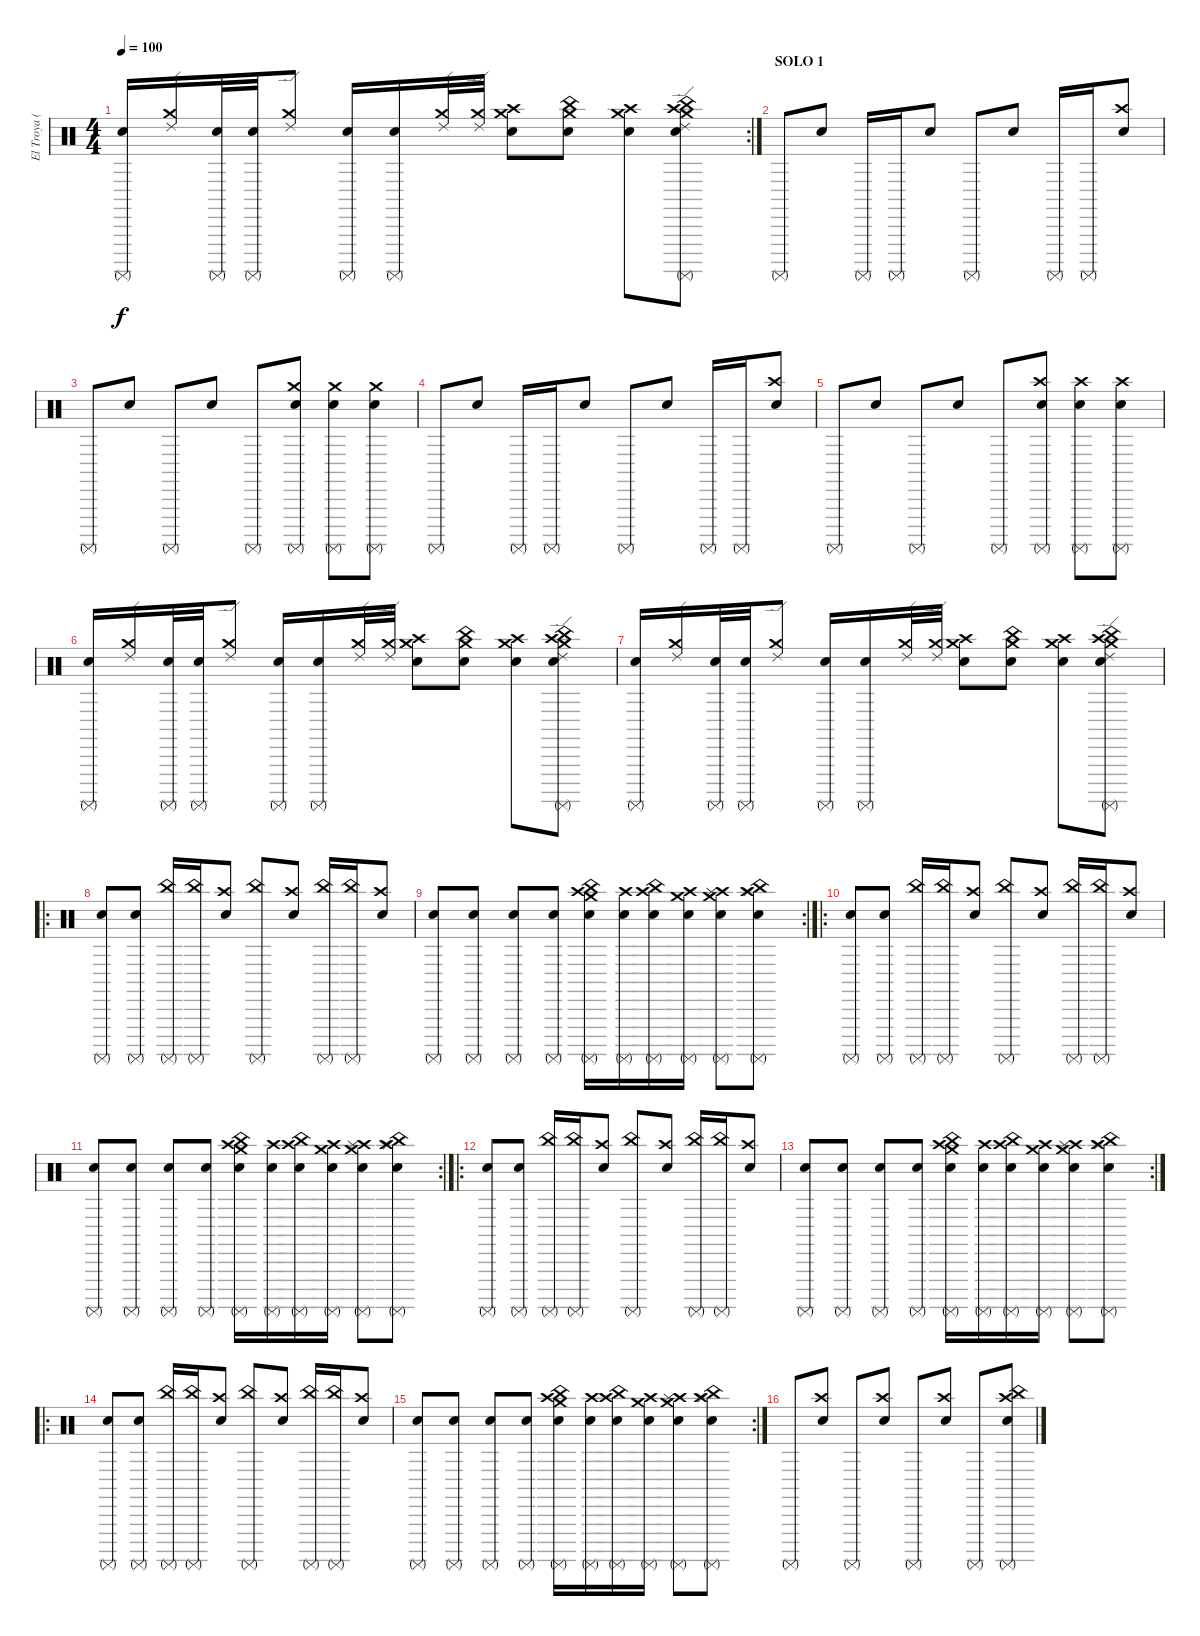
\track ("El Troya (Premio)" "El Troya (") {instrument percussion}
\staff {score}
\articulation defaults
\rc 2
\ts (4 4)
\tempo 100
\clef neutral
\ks c
("Electric Snare (hit)" "Surdo (mute)").16{dy f} ("Ride (edge) 2" "Crash medium (hit)").16 ("Electric Snare (hit)" "Surdo (mute)").32 ("Electric Snare (hit)" "Surdo (mute)").32 ("Ride (edge) 2" "Crash medium (hit)").8 ("Electric Snare (hit)" "Surdo (mute)").16 ("Electric Snare (hit)" "Surdo (mute)").16 ("Crash medium (hit)" "Ride (edge) 2").32 ("Crash medium (hit)" "Ride (edge) 2").32 ("Crash high (hit)" "Crash medium (hit)" "Electric Snare (hit)").8 ("China (hit)" "Crash medium (hit)" "Electric Snare (hit)").8 ("Crash high (hit)" "Crash medium (hit)" "Electric Snare (hit)").8 ("Crash high (hit)" "China (hit)" "Ride (edge) 2" "Crash medium (hit)" "Surdo (mute)" "Electric Snare (hit)").8 |
\section ("" "SOLO 1")
"Surdo (mute)".8 "Electric Snare (hit)".8 "Surdo (mute)".16 "Surdo (mute)".16 "Electric Snare (hit)".8 "Surdo (mute)".8 "Electric Snare (hit)".8 "Surdo (mute)".16 "Surdo (mute)".16 ("Crash high (hit)" "Electric Snare (hit)").8 |
"Surdo (mute)".8 "Electric Snare (hit)".8 "Surdo (mute)".8 "Electric Snare (hit)".8 "Surdo (mute)".8 ("Surdo (mute)" "Crash medium (hit)" "Electric Snare (hit)").8 ("Surdo (mute)" "Crash medium (hit)" "Electric Snare (hit)").8 ("Surdo (mute)" "Crash medium (hit)" "Electric Snare (hit)").8 |
"Surdo (mute)".8 "Electric Snare (hit)".8 "Surdo (mute)".16 "Surdo (mute)".16 "Electric Snare (hit)".8 "Surdo (mute)".8 "Electric Snare (hit)".8 "Surdo (mute)".16 "Surdo (mute)".16 ("Crash high (hit)" "Electric Snare (hit)").8 |
"Surdo (mute)".8 "Electric Snare (hit)".8 "Surdo (mute)".8 "Electric Snare (hit)".8 "Surdo (mute)".8 ("Crash high (hit)" "Surdo (mute)" "Electric Snare (hit)").8 ("Crash high (hit)" "Electric Snare (hit)" "Surdo (mute)").8 ("Crash high (hit)" "Surdo (mute)" "Electric Snare (hit)").8 |
("Electric Snare (hit)" "Surdo (mute)").16 ("Ride (edge) 2" "Crash medium (hit)").16 ("Electric Snare (hit)" "Surdo (mute)").32 ("Electric Snare (hit)" "Surdo (mute)").32 ("Ride (edge) 2" "Crash medium (hit)").8 ("Electric Snare (hit)" "Surdo (mute)").16 ("Electric Snare (hit)" "Surdo (mute)").16 ("Crash medium (hit)" "Ride (edge) 2").32 ("Crash medium (hit)" "Ride (edge) 2").32 ("Crash high (hit)" "Crash medium (hit)" "Electric Snare (hit)").8 ("China (hit)" "Crash medium (hit)" "Electric Snare (hit)").8 ("Crash high (hit)" "Crash medium (hit)" "Electric Snare (hit)").8 ("Crash high (hit)" "China (hit)" "Ride (edge) 2" "Crash medium (hit)" "Surdo (mute)" "Electric Snare (hit)").8 |
("Electric Snare (hit)" "Surdo (mute)").16 ("Ride (edge) 2" "Crash medium (hit)").16 ("Electric Snare (hit)" "Surdo (mute)").32 ("Electric Snare (hit)" "Surdo (mute)").32 ("Ride (edge) 2" "Crash medium (hit)").8 ("Electric Snare (hit)" "Surdo (mute)").16 ("Electric Snare (hit)" "Surdo (mute)").16 ("Crash medium (hit)" "Ride (edge) 2").32 ("Crash medium (hit)" "Ride (edge) 2").32 ("Crash high (hit)" "Crash medium (hit)" "Electric Snare (hit)").8 ("China (hit)" "Crash medium (hit)" "Electric Snare (hit)").8 ("Crash high (hit)" "Crash medium (hit)" "Electric Snare (hit)").8 ("Crash high (hit)" "China (hit)" "Ride (edge) 2" "Crash medium (hit)" "Surdo (mute)" "Electric Snare (hit)").8 |
\ro
("Electric Snare (hit)" "Surdo (mute)").8 ("Surdo (mute)" "Electric Snare (hit)").8 ("China (hit)" "Surdo (mute)").16 ("China (hit)" "Surdo (mute)").16 ("Crash high (hit)" "Electric Snare (hit)").8 ("China (hit)" "Surdo (mute)").8 ("Crash high (hit)" "Electric Snare (hit)").8 ("China (hit)" "Surdo (mute)").16 ("China (hit)" "Surdo (mute)").16 ("Crash high (hit)" "Electric Snare (hit)").8 |
\rc 2
("Electric Snare (hit)" "Surdo (mute)").8 ("Surdo (mute)" "Electric Snare (hit)").8 ("Electric Snare (hit)" "Surdo (mute)").8 ("Surdo (mute)" "Electric Snare (hit)").8 ("Crash high (hit)" "Crash medium (hit)" "China (hit)" "Electric Snare (hit)" "Surdo (mute)").16 ("Crash high (hit)" "Electric Snare (hit)" "Surdo (mute)").16 ("China (hit)" "Crash high (hit)" "Electric Snare (hit)" "Surdo (mute)").16 ("Crash high (hit)" "Crash medium (hit)" "Electric Snare (hit)" "Surdo (mute)").16 ("Crash high (hit)" "Splash (hit)" "Crash medium (hit)" "Electric Snare (hit)" "Surdo (mute)").8 ("China (hit)" "Splash (hit)" "Electric Snare (hit)" "Crash high (hit)" "Surdo (mute)").8 |
\ro
("Electric Snare (hit)" "Surdo (mute)").8 ("Surdo (mute)" "Electric Snare (hit)").8 ("China (hit)" "Surdo (mute)").16 ("China (hit)" "Surdo (mute)").16 ("Crash high (hit)" "Electric Snare (hit)").8 ("China (hit)" "Surdo (mute)").8 ("Crash high (hit)" "Electric Snare (hit)").8 ("China (hit)" "Surdo (mute)").16 ("China (hit)" "Surdo (mute)").16 ("Crash high (hit)" "Electric Snare (hit)").8 |
\rc 2
("Electric Snare (hit)" "Surdo (mute)").8 ("Surdo (mute)" "Electric Snare (hit)").8 ("Electric Snare (hit)" "Surdo (mute)").8 ("Surdo (mute)" "Electric Snare (hit)").8 ("Crash high (hit)" "Crash medium (hit)" "China (hit)" "Electric Snare (hit)" "Surdo (mute)").16 ("Crash high (hit)" "Electric Snare (hit)" "Surdo (mute)").16 ("China (hit)" "Crash high (hit)" "Electric Snare (hit)" "Surdo (mute)").16 ("Crash high (hit)" "Crash medium (hit)" "Electric Snare (hit)" "Surdo (mute)").16 ("Crash high (hit)" "Splash (hit)" "Crash medium (hit)" "Electric Snare (hit)" "Surdo (mute)").8 ("China (hit)" "Splash (hit)" "Electric Snare (hit)" "Crash high (hit)" "Surdo (mute)").8 |
\ro
("Electric Snare (hit)" "Surdo (mute)").8 ("Surdo (mute)" "Electric Snare (hit)").8 ("China (hit)" "Surdo (mute)").16 ("China (hit)" "Surdo (mute)").16 ("Crash high (hit)" "Electric Snare (hit)").8 ("China (hit)" "Surdo (mute)").8 ("Crash high (hit)" "Electric Snare (hit)").8 ("China (hit)" "Surdo (mute)").16 ("China (hit)" "Surdo (mute)").16 ("Crash high (hit)" "Electric Snare (hit)").8 |
\rc 2
("Electric Snare (hit)" "Surdo (mute)").8 ("Surdo (mute)" "Electric Snare (hit)").8 ("Electric Snare (hit)" "Surdo (mute)").8 ("Surdo (mute)" "Electric Snare (hit)").8 ("Crash high (hit)" "Crash medium (hit)" "China (hit)" "Electric Snare (hit)" "Surdo (mute)").16 ("Crash high (hit)" "Electric Snare (hit)" "Surdo (mute)").16 ("China (hit)" "Crash high (hit)" "Electric Snare (hit)" "Surdo (mute)").16 ("Crash high (hit)" "Crash medium (hit)" "Electric Snare (hit)" "Surdo (mute)").16 ("Crash high (hit)" "Splash (hit)" "Crash medium (hit)" "Electric Snare (hit)" "Surdo (mute)").8 ("China (hit)" "Splash (hit)" "Electric Snare (hit)" "Crash high (hit)" "Surdo (mute)").8 |
\ro
("Electric Snare (hit)" "Surdo (mute)").8 ("Surdo (mute)" "Electric Snare (hit)").8 ("China (hit)" "Surdo (mute)").16 ("China (hit)" "Surdo (mute)").16 ("Crash high (hit)" "Electric Snare (hit)").8 ("China (hit)" "Surdo (mute)").8 ("Crash high (hit)" "Electric Snare (hit)").8 ("China (hit)" "Surdo (mute)").16 ("China (hit)" "Surdo (mute)").16 ("Crash high (hit)" "Electric Snare (hit)").8 |
\rc 2
("Electric Snare (hit)" "Surdo (mute)").8 ("Surdo (mute)" "Electric Snare (hit)").8 ("Electric Snare (hit)" "Surdo (mute)").8 ("Surdo (mute)" "Electric Snare (hit)").8 ("Crash high (hit)" "Crash medium (hit)" "China (hit)" "Electric Snare (hit)" "Surdo (mute)").16 ("Crash high (hit)" "Electric Snare (hit)" "Surdo (mute)").16 ("China (hit)" "Crash high (hit)" "Electric Snare (hit)" "Surdo (mute)").16 ("Crash high (hit)" "Crash medium (hit)" "Electric Snare (hit)" "Surdo (mute)").16 ("Crash high (hit)" "Splash (hit)" "Crash medium (hit)" "Electric Snare (hit)" "Surdo (mute)").8 ("China (hit)" "Splash (hit)" "Electric Snare (hit)" "Crash high (hit)" "Surdo (mute)").8 |
"Surdo (mute)".8 ("Crash high (hit)" "Electric Snare (hit)").8 "Surdo (mute)".8 ("Crash high (hit)" "Electric Snare (hit)").8 "Surdo (mute)".8 ("Crash high (hit)" "Electric Snare (hit)").8 "Surdo (mute)".8 ("Surdo (mute)" "China (hit)" "Crash high (hit)" "Electric Snare (hit)").8
